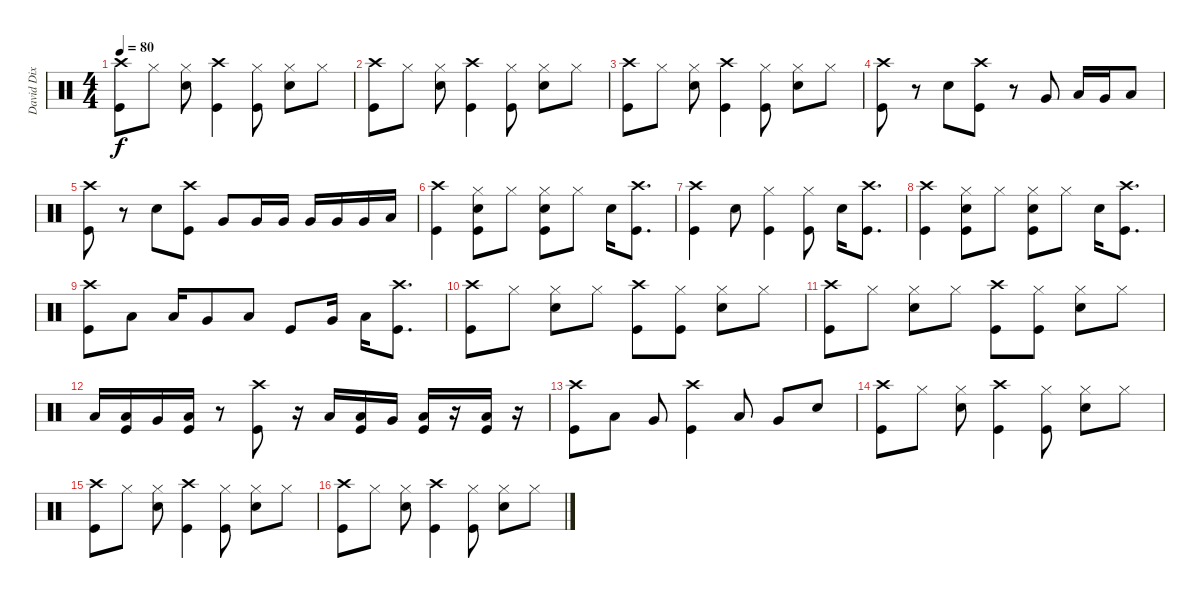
\track ("David Dix Drums" "David Dix ") {instrument percussion}
\staff {score}
\articulation defaults
\ts (4 4)
\tempo 80
\clef neutral
\ks c
("Crash high (hit)" "Kick (hit)").8{dy f} "Hi-Hat (closed)".8 ("Hi-Hat (closed)" "Snare (hit) 2").8 ("Crash high (hit)" "Kick (hit)").4 ("Hi-Hat (closed)" "Kick (hit)").8 ("Hi-Hat (closed)" "Snare (hit) 2").8 "Hi-Hat (closed)".8 |
("Crash high (hit)" "Kick (hit)").8 "Hi-Hat (closed)".8 ("Hi-Hat (closed)" "Snare (hit) 2").8 ("Crash high (hit)" "Kick (hit)").4 ("Hi-Hat (closed)" "Kick (hit)").8 ("Hi-Hat (closed)" "Snare (hit) 2").8 "Hi-Hat (closed)".8 |
("Crash high (hit)" "Kick (hit)").8 "Hi-Hat (closed)".8 ("Hi-Hat (closed)" "Snare (hit) 2").8 ("Crash high (hit)" "Kick (hit)").4 ("Hi-Hat (closed)" "Kick (hit)").8 ("Hi-Hat (closed)" "Snare (hit) 2").8 "Hi-Hat (closed)".8 |
("Crash high (hit)" "Kick (hit)").8 r.8 "Snare (hit) 2".8 ("Crash high (hit)" "Kick (hit)").8 r.8 "Very Low Tom (hit)".8 "Low Tom (hit)".16 "Very Low Tom (hit)".16 "Low Floor Tom (hit)".8 |
("Crash high (hit)" "Kick (hit)").8 r.8 "Snare (hit) 2".8 ("Crash high (hit)" "Kick (hit)").8 "Very Low Tom (hit)".8 "Very Low Tom (hit)".16 "Very Low Tom (hit)".16 "Very Low Tom (hit)".16 "Very Low Tom (hit)".16 "Very Low Tom (hit)".16 "Low Floor Tom (hit)".16 |
("Crash high (hit)" "Kick (hit)").4 ("Hi-Hat (closed)" "Snare (hit) 2" "Kick (hit)").8 "Hi-Hat (closed)".8 ("Hi-Hat (closed)" "Snare (hit) 2" "Kick (hit)").8 "Hi-Hat (closed)".8 "Snare (hit) 2".16 ("Crash high (hit)" "Kick (hit)").8{d} |
("Crash high (hit)" "Kick (hit)").4 "Snare (hit) 2".8 ("Hi-Hat (closed)" "Kick (hit)").4 ("Hi-Hat (closed)" "Kick (hit)").8 "Snare (hit) 2".16 ("Crash high (hit)" "Kick (hit)").8{d} |
("Crash high (hit)" "Kick (hit)").4 ("Hi-Hat (closed)" "Snare (hit) 2" "Kick (hit)").8 "Hi-Hat (closed)".8 ("Hi-Hat (closed)" "Snare (hit) 2" "Kick (hit)").8 "Hi-Hat (closed)".8 "Snare (hit) 2".16 ("Crash high (hit)" "Kick (hit)").8{d} |
("Crash high (hit)" "Kick (hit)").8 "Low Tom (hit)".8 "Low Tom (hit)".16 "Very Low Tom (hit)".8 "Low Floor Tom (hit)".8 "Kick (hit)".8 "Very Low Tom (hit)".16 "Low Floor Tom (hit)".16 ("Crash high (hit)" "Kick (hit)").8{d} |
("Crash high (hit)" "Kick (hit)").8 "Hi-Hat (closed)".8 ("Hi-Hat (closed)" "Snare (hit) 2").8 "Hi-Hat (closed)".8 ("Crash high (hit)" "Kick (hit)").8 ("Hi-Hat (closed)" "Kick (hit)").8 ("Hi-Hat (closed)" "Snare (hit) 2").8 "Hi-Hat (closed)".8 |
("Crash high (hit)" "Kick (hit)").8 "Hi-Hat (closed)".8 ("Hi-Hat (closed)" "Snare (hit) 2").8 "Hi-Hat (closed)".8 ("Crash high (hit)" "Kick (hit)").8 ("Hi-Hat (closed)" "Kick (hit)").8 ("Hi-Hat (closed)" "Snare (hit) 2").8 "Hi-Hat (closed)".8 |
"Low Tom (hit)".16 ("Low Tom (hit)" "Kick (hit)").16 "Very Low Tom (hit)".16 ("Low Floor Tom (hit)" "Kick (hit)").16 r.8 ("Crash high (hit)" "Kick (hit)").8 r.16 "Low Tom (hit)".16 ("Low Tom (hit)" "Kick (hit)").16 "Very Low Tom (hit)".16 ("Low Floor Tom (hit)" "Kick (hit)").16 r.16 ("Low Floor Tom (hit)" "Kick (hit)").16 r.16 |
("Crash high (hit)" "Kick (hit)").8 "Low Tom (hit)".8 "Very Low Tom (hit)".8 ("Crash high (hit)" "Kick (hit)").4 "Low Floor Tom (hit)".8 "Very Low Tom (hit)".8 "Snare (hit) 2".8 |
("Crash high (hit)" "Kick (hit)").8 "Hi-Hat (closed)".8 ("Hi-Hat (closed)" "Snare (hit) 2").8 ("Crash high (hit)" "Kick (hit)").4 ("Hi-Hat (closed)" "Kick (hit)").8 ("Hi-Hat (closed)" "Snare (hit) 2").8 "Hi-Hat (closed)".8 |
("Crash high (hit)" "Kick (hit)").8 "Hi-Hat (closed)".8 ("Hi-Hat (closed)" "Snare (hit) 2").8 ("Crash high (hit)" "Kick (hit)").4 ("Hi-Hat (closed)" "Kick (hit)").8 ("Hi-Hat (closed)" "Snare (hit) 2").8 "Hi-Hat (closed)".8 |
("Crash high (hit)" "Kick (hit)").8 "Hi-Hat (closed)".8 ("Hi-Hat (closed)" "Snare (hit) 2").8 ("Crash high (hit)" "Kick (hit)").4 ("Hi-Hat (closed)" "Kick (hit)").8 ("Hi-Hat (closed)" "Snare (hit) 2").8 "Hi-Hat (closed)".8
